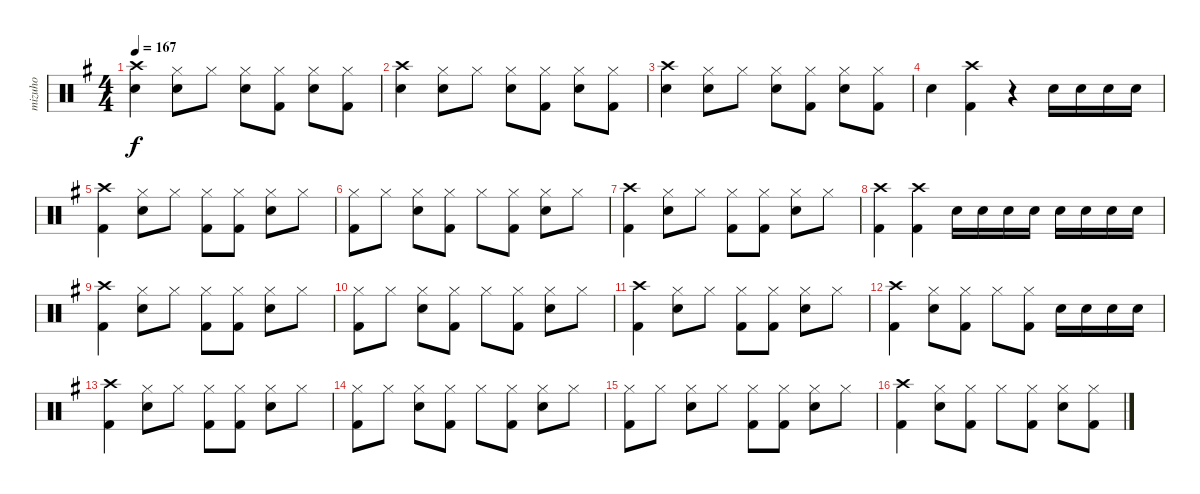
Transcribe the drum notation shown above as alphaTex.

\track ("mizuho" "mizuho") {instrument percussion}
\staff {score}
\articulation defaults
\ts (4 4)
\tempo 167
\clef neutral
\ks eminor
("Crash high (hit)" "Electric Snare (hit)").4{dy f} ("Hi-Hat (closed)" "Electric Snare (hit)").8 "Hi-Hat (closed)".8 ("Hi-Hat (closed)" "Electric Snare (hit)").8 ("Hi-Hat (closed)" "Kick (hit) 2").8 ("Hi-Hat (closed)" "Electric Snare (hit)").8 ("Hi-Hat (closed)" "Kick (hit) 2").8 |
("Crash high (hit)" "Electric Snare (hit)").4 ("Hi-Hat (closed)" "Electric Snare (hit)").8 "Hi-Hat (closed)".8 ("Hi-Hat (closed)" "Electric Snare (hit)").8 ("Hi-Hat (closed)" "Kick (hit) 2").8 ("Hi-Hat (closed)" "Electric Snare (hit)").8 ("Hi-Hat (closed)" "Kick (hit) 2").8 |
("Crash high (hit)" "Electric Snare (hit)").4 ("Hi-Hat (closed)" "Electric Snare (hit)").8 "Hi-Hat (closed)".8 ("Hi-Hat (closed)" "Electric Snare (hit)").8 ("Hi-Hat (closed)" "Kick (hit) 2").8 ("Hi-Hat (closed)" "Electric Snare (hit)").8 ("Hi-Hat (closed)" "Kick (hit) 2").8 |
"Electric Snare (hit)".4 ("Crash high (hit)" "Kick (hit) 2").4 r.4 "Snare (hit) 2".16 "Snare (hit) 2".16 "Snare (hit) 2".16 "Snare (hit) 2".16 |
("Crash high (hit)" "Kick (hit) 2").4 ("Hi-Hat (closed)" "Electric Snare (hit)").8 "Hi-Hat (closed)".8 ("Hi-Hat (closed)" "Kick (hit) 2").8 ("Hi-Hat (closed)" "Kick (hit) 2").8 ("Hi-Hat (closed)" "Electric Snare (hit)").8 "Hi-Hat (closed)".8 |
("Hi-Hat (closed)" "Kick (hit) 2").8 "Hi-Hat (closed)".8 ("Hi-Hat (closed)" "Electric Snare (hit)").8 ("Hi-Hat (closed)" "Kick (hit) 2").8 "Hi-Hat (closed)".8 ("Hi-Hat (closed)" "Kick (hit) 2").8 ("Hi-Hat (closed)" "Electric Snare (hit)").8 "Hi-Hat (closed)".8 |
("Crash high (hit)" "Kick (hit) 2").4 ("Hi-Hat (closed)" "Electric Snare (hit)").8 "Hi-Hat (closed)".8 ("Hi-Hat (closed)" "Kick (hit) 2").8 ("Hi-Hat (closed)" "Kick (hit) 2").8 ("Hi-Hat (closed)" "Electric Snare (hit)").8 "Hi-Hat (closed)".8 |
("Crash high (hit)" "Kick (hit) 2").4 ("Crash high (hit)" "Kick (hit) 2").4 "Snare (hit) 2".16 "Snare (hit) 2".16 "Snare (hit) 2".16 "Snare (hit) 2".16 "Snare (hit) 2".16 "Snare (hit) 2".16 "Snare (hit) 2".16 "Snare (hit) 2".16 |
("Crash high (hit)" "Kick (hit) 2").4 ("Hi-Hat (closed)" "Electric Snare (hit)").8 "Hi-Hat (closed)".8 ("Hi-Hat (closed)" "Kick (hit) 2").8 ("Hi-Hat (closed)" "Kick (hit) 2").8 ("Hi-Hat (closed)" "Electric Snare (hit)").8 "Hi-Hat (closed)".8 |
("Hi-Hat (closed)" "Kick (hit) 2").8 "Hi-Hat (closed)".8 ("Hi-Hat (closed)" "Electric Snare (hit)").8 ("Hi-Hat (closed)" "Kick (hit) 2").8 "Hi-Hat (closed)".8 ("Hi-Hat (closed)" "Kick (hit) 2").8 ("Hi-Hat (closed)" "Electric Snare (hit)").8 "Hi-Hat (closed)".8 |
("Crash high (hit)" "Kick (hit) 2").4 ("Hi-Hat (closed)" "Electric Snare (hit)").8 "Hi-Hat (closed)".8 ("Hi-Hat (closed)" "Kick (hit) 2").8 ("Hi-Hat (closed)" "Kick (hit) 2").8 ("Hi-Hat (closed)" "Electric Snare (hit)").8 "Hi-Hat (closed)".8 |
("Crash high (hit)" "Kick (hit) 2").4 ("Hi-Hat (closed)" "Electric Snare (hit)").8 ("Hi-Hat (closed)" "Kick (hit) 2").8 "Hi-Hat (closed)".8 ("Hi-Hat (closed)" "Kick (hit) 2").8 "Snare (hit) 2".16 "Snare (hit) 2".16 "Snare (hit) 2".16 "Snare (hit) 2".16 |
("Crash high (hit)" "Kick (hit) 2").4 ("Hi-Hat (closed)" "Electric Snare (hit)").8 "Hi-Hat (closed)".8 ("Hi-Hat (closed)" "Kick (hit) 2").8 ("Hi-Hat (closed)" "Kick (hit) 2").8 ("Hi-Hat (closed)" "Electric Snare (hit)").8 "Hi-Hat (closed)".8 |
("Hi-Hat (closed)" "Kick (hit) 2").8 "Hi-Hat (closed)".8 ("Hi-Hat (closed)" "Electric Snare (hit)").8 ("Hi-Hat (closed)" "Kick (hit) 2").8 "Hi-Hat (closed)".8 ("Hi-Hat (closed)" "Kick (hit) 2").8 ("Hi-Hat (closed)" "Electric Snare (hit)").8 "Hi-Hat (closed)".8 |
("Hi-Hat (closed)" "Kick (hit) 2").8 "Hi-Hat (closed)".8 ("Hi-Hat (closed)" "Electric Snare (hit)").8 "Hi-Hat (closed)".8 ("Hi-Hat (closed)" "Kick (hit) 2").8 ("Hi-Hat (closed)" "Kick (hit) 2").8 ("Hi-Hat (closed)" "Electric Snare (hit)").8 "Hi-Hat (closed)".8 |
("Crash high (hit)" "Kick (hit) 2").4 ("Hi-Hat (closed)" "Electric Snare (hit)").8 ("Hi-Hat (closed)" "Kick (hit) 2").8 "Hi-Hat (closed)".8 ("Hi-Hat (closed)" "Kick (hit) 2").8 ("Hi-Hat (closed)" "Electric Snare (hit)").8 ("Hi-Hat (closed)" "Kick (hit) 2").8
